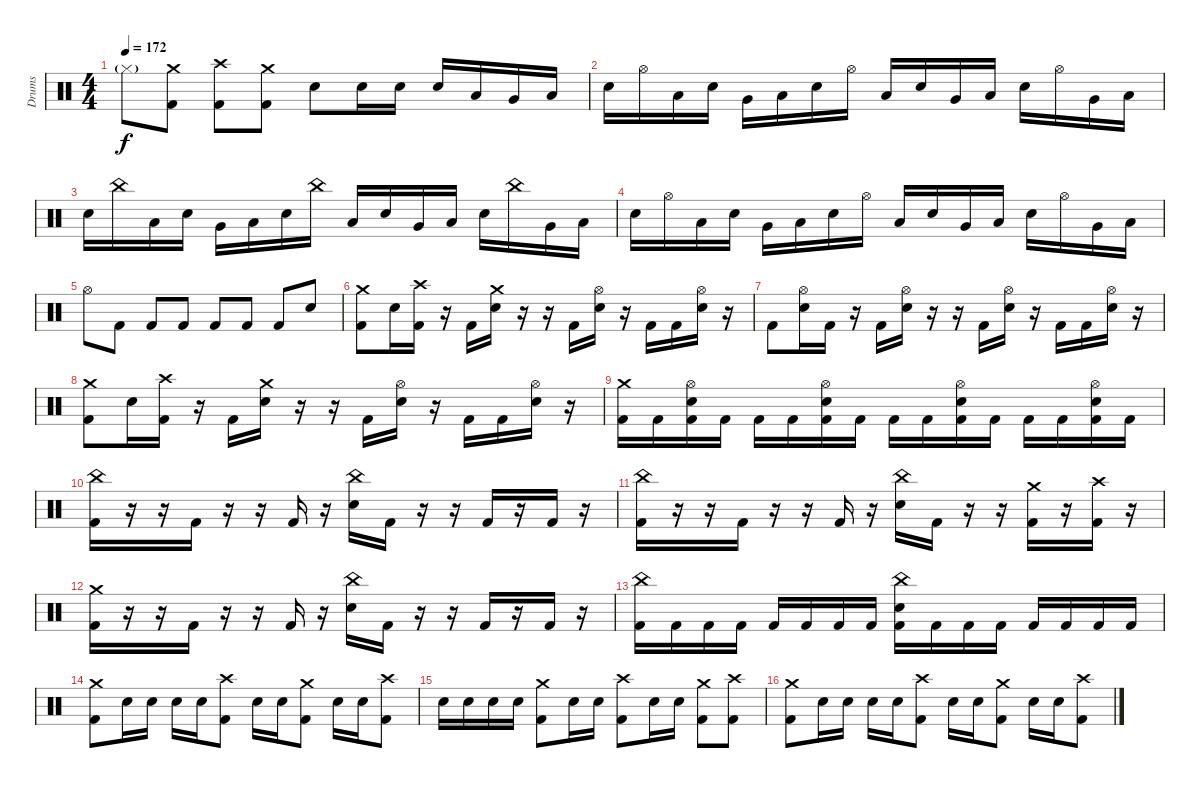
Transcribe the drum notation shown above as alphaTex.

\track ("Drums" "Drums") {instrument percussion}
\staff {score}
\articulation defaults
\ts (4 4)
\tempo 172
\clef neutral
\ks c "Hi-Hat (closed)"{g}.8{dy f}
("Crash medium (hit)" "Kick (hit) 2").8 ("Crash high (hit)" "Kick (hit) 2").8 ("Crash medium (hit)" "Kick (hit) 2").8 "Electric Snare (hit)".8 "Electric Snare (hit)".16 "Electric Snare (hit)".16 "Electric Snare (hit)".16 "Low Tom (hit)".16 "Very Low Tom (hit)".16 "Low Floor Tom (hit)".16 |
"Electric Snare (hit)".16 "Hi-Hat (open)".16 "Low Floor Tom (hit)".16 "Electric Snare (hit)".16 "Very Low Tom (hit)".16 "Low Floor Tom (hit)".16 "Electric Snare (hit)".16 "Hi-Hat (open)".16 "Low Floor Tom (hit)".16 "Electric Snare (hit)".16 "Very Low Tom (hit)".16 "Low Floor Tom (hit)".16 "Electric Snare (hit)".16 "Hi-Hat (open)".16 "Very Low Tom (hit)".16 "Low Floor Tom (hit)".16 |
"Electric Snare (hit)".16 "China (hit)".16 "Low Floor Tom (hit)".16 "Electric Snare (hit)".16 "Very Low Tom (hit)".16 "Low Floor Tom (hit)".16 "Electric Snare (hit)".16 "China (hit)".16 "Low Floor Tom (hit)".16 "Electric Snare (hit)".16 "Very Low Tom (hit)".16 "Low Floor Tom (hit)".16 "Electric Snare (hit)".16 "China (hit)".16 "Very Low Tom (hit)".16 "Low Floor Tom (hit)".16 |
"Electric Snare (hit)".16 "Hi-Hat (open)".16 "Low Floor Tom (hit)".16 "Electric Snare (hit)".16 "Very Low Tom (hit)".16 "Low Floor Tom (hit)".16 "Electric Snare (hit)".16 "Hi-Hat (open)".16 "Low Floor Tom (hit)".16 "Electric Snare (hit)".16 "Very Low Tom (hit)".16 "Low Floor Tom (hit)".16 "Electric Snare (hit)".16 "Hi-Hat (open)".16 "Very Low Tom (hit)".16 "Low Floor Tom (hit)".16 |
"Hi-Hat (open)".8 "Kick (hit) 2".8 "Kick (hit) 2".8 "Kick (hit) 2".8 "Kick (hit) 2".8 "Kick (hit) 2".8 "Kick (hit) 2".8 "Electric Snare (hit)".8 |
("Crash medium (hit)" "Kick (hit) 2").8 "Electric Snare (hit)".16 ("Crash high (hit)" "Kick (hit) 2").16 r.16 "Kick (hit) 2".16 ("Crash medium (hit)" "Electric Snare (hit)").16 r.16 r.16 "Kick (hit) 2".16 ("Hi-Hat (open)" "Electric Snare (hit)").16 r.16 "Kick (hit) 2".16 "Kick (hit) 2".16 ("Hi-Hat (open)" "Electric Snare (hit)").16 r.16 |
"Kick (hit) 2".8 ("Hi-Hat (open)" "Electric Snare (hit)").16 "Kick (hit) 2".16 r.16 "Kick (hit) 2".16 ("Hi-Hat (open)" "Electric Snare (hit)").16 r.16 r.16 "Kick (hit) 2".16 ("Hi-Hat (open)" "Electric Snare (hit)").16 r.16 "Kick (hit) 2".16 "Kick (hit) 2".16 ("Hi-Hat (open)" "Electric Snare (hit)").16 r.16 |
("Crash medium (hit)" "Kick (hit) 2").8 "Electric Snare (hit)".16 ("Crash high (hit)" "Kick (hit) 2").16 r.16 "Kick (hit) 2".16 ("Crash medium (hit)" "Electric Snare (hit)").16 r.16 r.16 "Kick (hit) 2".16 ("Hi-Hat (open)" "Electric Snare (hit)").16 r.16 "Kick (hit) 2".16 "Kick (hit) 2".16 ("Hi-Hat (open)" "Electric Snare (hit)").16 r.16 |
("Crash medium (hit)" "Kick (hit) 2").16 "Kick (hit) 2".16 ("Hi-Hat (open)" "Electric Snare (hit)" "Kick (hit) 2").16 "Kick (hit) 2".16 "Kick (hit) 2".16 "Kick (hit) 2".16 ("Hi-Hat (open)" "Electric Snare (hit)" "Kick (hit) 2").16 "Kick (hit) 2".16 "Kick (hit) 2".16 "Kick (hit) 2".16 ("Hi-Hat (open)" "Electric Snare (hit)" "Kick (hit) 2").16 "Kick (hit) 2".16 "Kick (hit) 2".16 "Kick (hit) 2".16 ("Hi-Hat (open)" "Electric Snare (hit)" "Kick (hit) 2").16 "Kick (hit) 2".16 |
("China (hit)" "Kick (hit) 2").16 r.16 r.16 "Kick (hit) 2".16 r.16 r.16 "Kick (hit) 2".16 r.16 ("China (hit)" "Electric Snare (hit)").16 "Kick (hit) 2".16 r.16 r.16 "Kick (hit) 2".16 r.16 "Kick (hit) 2".16 r.16 |
("China (hit)" "Kick (hit) 2").16 r.16 r.16 "Kick (hit) 2".16 r.16 r.16 "Kick (hit) 2".16 r.16 ("China (hit)" "Electric Snare (hit)").16 "Kick (hit) 2".16 r.16 r.16 ("Crash medium (hit)" "Kick (hit) 2").16 r.16 ("Crash high (hit)" "Kick (hit) 2").16 r.16 |
("Crash medium (hit)" "Kick (hit) 2").16 r.16 r.16 "Kick (hit) 2".16 r.16 r.16 "Kick (hit) 2".16 r.16 ("China (hit)" "Electric Snare (hit)").16 "Kick (hit) 2".16 r.16 r.16 "Kick (hit) 2".16 r.16 "Kick (hit) 2".16 r.16 |
("China (hit)" "Kick (hit) 2").16 "Kick (hit) 2".16 "Kick (hit) 2".16 "Kick (hit) 2".16 "Kick (hit) 2".16 "Kick (hit) 2".16 "Kick (hit) 2".16 "Kick (hit) 2".16 ("China (hit)" "Electric Snare (hit)" "Kick (hit) 2").16 "Kick (hit) 2".16 "Kick (hit) 2".16 "Kick (hit) 2".16 "Kick (hit) 2".16 "Kick (hit) 2".16 "Kick (hit) 2".16 "Kick (hit) 2".16 |
("Crash medium (hit)" "Kick (hit) 2").8 "Electric Snare (hit)".16 "Electric Snare (hit)".16 "Electric Snare (hit)".16 "Electric Snare (hit)".16 ("Crash high (hit)" "Kick (hit) 2").8 "Electric Snare (hit)".16 "Electric Snare (hit)".16 ("Crash medium (hit)" "Kick (hit) 2").8 "Electric Snare (hit)".16 "Electric Snare (hit)".16 ("Crash high (hit)" "Kick (hit) 2").8 |
"Electric Snare (hit)".16 "Electric Snare (hit)".16 "Electric Snare (hit)".16 "Electric Snare (hit)".16 ("Crash medium (hit)" "Kick (hit) 2").8 "Electric Snare (hit)".16 "Electric Snare (hit)".16 ("Crash high (hit)" "Kick (hit) 2").8 "Electric Snare (hit)".16 "Electric Snare (hit)".16 ("Crash medium (hit)" "Kick (hit) 2").8 ("Crash high (hit)" "Kick (hit) 2").8 |
("Crash medium (hit)" "Kick (hit) 2").8 "Electric Snare (hit)".16 "Electric Snare (hit)".16 "Electric Snare (hit)".16 "Electric Snare (hit)".16 ("Crash high (hit)" "Kick (hit) 2").8 "Electric Snare (hit)".16 "Electric Snare (hit)".16 ("Crash medium (hit)" "Kick (hit) 2").8 "Electric Snare (hit)".16 "Electric Snare (hit)".16 ("Crash high (hit)" "Kick (hit) 2").8
